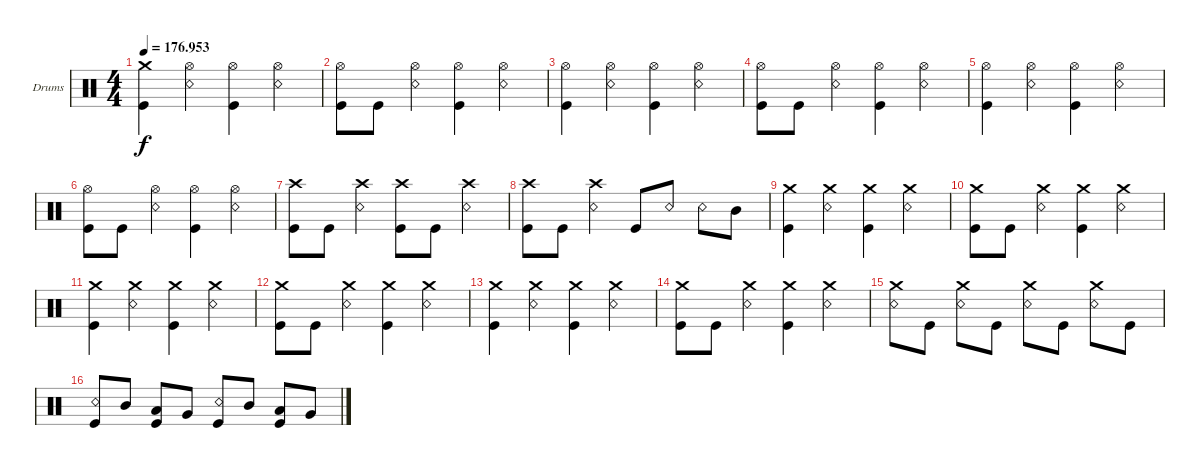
\defaultSystemsLayout 4
\bracketExtendMode groupsimilarinstruments
\firstSystemTrackNameOrientation horizontal
\otherSystemsTrackNameOrientation horizontal
\track ("Christopher" "Drums") {instrument percussion}
\staff {score}
\articulation defaults
\ts (4 4)
\tempo
176.953
\accidentals auto
\clef neutral
\ottava regular
\simile none
\ks c
("Crash medium (hit)" "Kick (hit)").4{dy f} ("Snare (rim shot)" "Hi-Hat (open)").4 ("Hi-Hat (open)" "Kick (hit)").4 ("Snare (rim shot)" "Hi-Hat (open)").4 |
("Kick (hit)" "Hi-Hat (open)").8 "Kick (hit)".8 ("Snare (rim shot)" "Hi-Hat (open)").4 ("Kick (hit)" "Hi-Hat (open)").4 ("Snare (rim shot)" "Hi-Hat (open)").4 |
("Kick (hit)" "Hi-Hat (open)").4 ("Snare (rim shot)" "Hi-Hat (open)").4 ("Hi-Hat (open)" "Kick (hit)").4 ("Snare (rim shot)" "Hi-Hat (open)").4 |
("Kick (hit)" "Hi-Hat (open)").8 "Kick (hit)".8 ("Snare (rim shot)" "Hi-Hat (open)").4 ("Kick (hit)" "Hi-Hat (open)").4 ("Snare (rim shot)" "Hi-Hat (open)").4 |
("Kick (hit)" "Hi-Hat (open)").4 ("Snare (rim shot)" "Hi-Hat (open)").4 ("Hi-Hat (open)" "Kick (hit)").4 ("Snare (rim shot)" "Hi-Hat (open)").4 |
("Kick (hit)" "Hi-Hat (open)").8 "Kick (hit)".8 ("Snare (rim shot)" "Hi-Hat (open)").4 ("Kick (hit)" "Hi-Hat (open)").4 ("Snare (rim shot)" "Hi-Hat (open)").4 |
("Kick (hit)" "Crash high (hit)").8 "Kick (hit)".8 ("Snare (rim shot)" "Crash high (hit)").4 ("Kick (hit)" "Crash high (hit)").8 "Kick (hit)".8 ("Snare (rim shot)" "Crash high (hit)").4 |
("Kick (hit)" "Crash high (hit)").8 "Kick (hit)".8 ("Snare (rim shot)" "Crash high (hit)").4 "Kick (hit)".8 "Snare (rim shot)".8 "Snare (rim shot)".8 "Mid Tom (hit)".8 |
("Kick (hit)" "Crash medium (hit)").4 ("Snare (rim shot)" "Crash medium (hit)").4 ("Kick (hit)" "Crash medium (hit)").4 ("Snare (rim shot)" "Crash medium (hit)").4 |
("Kick (hit)" "Crash medium (hit)").8 "Kick (hit)".8 ("Snare (rim shot)" "Crash medium (hit)").4 ("Kick (hit)" "Crash medium (hit)").4 ("Snare (rim shot)" "Crash medium (hit)").4 |
("Kick (hit)" "Crash medium (hit)").4 ("Snare (rim shot)" "Crash medium (hit)").4 ("Kick (hit)" "Crash medium (hit)").4 ("Snare (rim shot)" "Crash medium (hit)").4 |
("Kick (hit)" "Crash medium (hit)").8 "Kick (hit)".8 ("Snare (rim shot)" "Crash medium (hit)").4 ("Kick (hit)" "Crash medium (hit)").4 ("Snare (rim shot)" "Crash medium (hit)").4 |
("Kick (hit)" "Crash medium (hit)").4 ("Snare (rim shot)" "Crash medium (hit)").4 ("Kick (hit)" "Crash medium (hit)").4 ("Snare (rim shot)" "Crash medium (hit)").4 |
("Kick (hit)" "Crash medium (hit)").8 "Kick (hit)".8 ("Snare (rim shot)" "Crash medium (hit)").4 ("Kick (hit)" "Crash medium (hit)").4 ("Snare (rim shot)" "Crash medium (hit)").4 |
("Snare (rim shot)" "Crash medium (hit)").8 "Kick (hit)".8 ("Snare (rim shot)" "Crash medium (hit)").8 "Kick (hit)".8 ("Snare (rim shot)" "Crash medium (hit)").8 "Kick (hit)".8 ("Snare (rim shot)" "Crash medium (hit)").8 "Kick (hit)".8 |
("Snare (rim shot)" "Kick (hit)").8 "Mid Tom (hit)".8 ("Low Tom (hit)" "Kick (hit)").8 "Very Low Tom (hit)".8 ("Snare (rim shot)" "Kick (hit)").8 "Mid Tom (hit)".8 ("Low Tom (hit)" "Kick (hit)").8 "Very Low Tom (hit)".8
